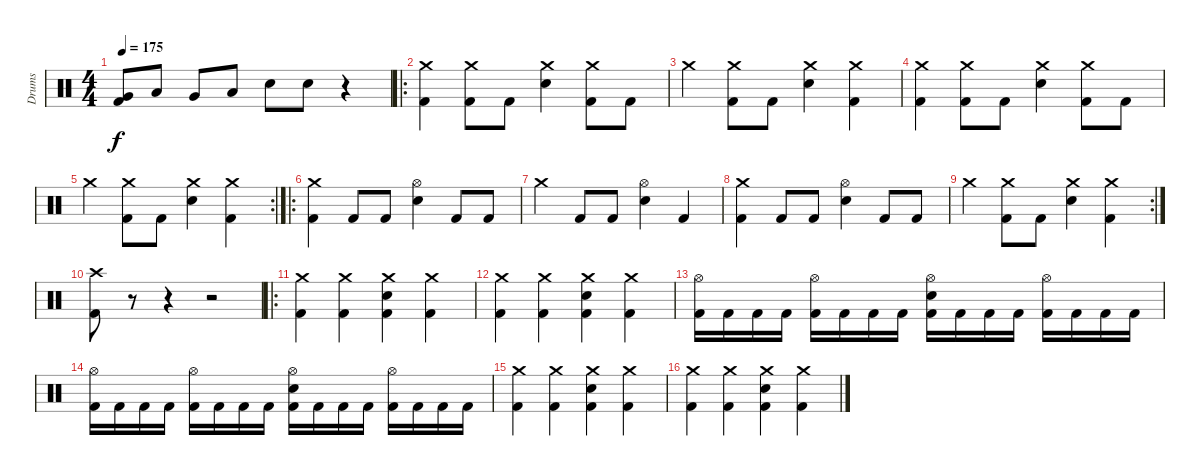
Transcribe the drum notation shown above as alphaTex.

\track ("Drums" "Drums") {instrument percussion}
\staff {score}
\articulation defaults
\ts (4 4)
\tempo 175
\clef neutral
\ks c
("Very Low Tom (hit)" "Kick (hit) 2").8{dy f} "Low Tom (hit)".8 "Very Low Tom (hit)".8 "Low Tom (hit)".8 "Snare (hit) 2".8 "Snare (hit) 2".8 r.4 |
\ro
("Crash medium (hit)" "Kick (hit) 2").4 ("Crash medium (hit)" "Kick (hit) 2").8 "Kick (hit) 2".8 ("Crash medium (hit)" "Snare (hit) 2").4 ("Crash medium (hit)" "Kick (hit) 2").8 "Kick (hit) 2".8 |
"Crash medium (hit)".4 ("Crash medium (hit)" "Kick (hit) 2").8 "Kick (hit) 2".8 ("Crash medium (hit)" "Snare (hit) 2").4 ("Crash medium (hit)" "Kick (hit) 2").4 |
("Crash medium (hit)" "Kick (hit) 2").4 ("Crash medium (hit)" "Kick (hit) 2").8 "Kick (hit) 2".8 ("Crash medium (hit)" "Snare (hit) 2").4 ("Crash medium (hit)" "Kick (hit) 2").8 "Kick (hit) 2".8 |
\rc 2 "Crash medium (hit)".4
("Crash medium (hit)" "Kick (hit) 2").8 "Kick (hit) 2".8 ("Crash medium (hit)" "Snare (hit) 2").4 ("Crash medium (hit)" "Kick (hit) 2").4 |
\ro
("Crash medium (hit)" "Kick (hit) 2").4 "Kick (hit) 2".8 "Kick (hit) 2".8 ("Hi-Hat (open)" "Snare (hit) 2").4 "Kick (hit) 2".8 "Kick (hit) 2".8 |
"Crash medium (hit)".4 "Kick (hit) 2".8 "Kick (hit) 2".8 ("Hi-Hat (open)" "Snare (hit) 2").4 "Kick (hit) 2".4 |
("Crash medium (hit)" "Kick (hit) 2").4 "Kick (hit) 2".8 "Kick (hit) 2".8 ("Hi-Hat (open)" "Snare (hit) 2").4 "Kick (hit) 2".8 "Kick (hit) 2".8 |
\rc 2 "Crash medium (hit)".4
("Crash medium (hit)" "Kick (hit) 2").8 "Kick (hit) 2".8 ("Crash medium (hit)" "Snare (hit) 2").4 ("Crash medium (hit)" "Kick (hit) 2").4 |
("Crash high (hit)" "Kick (hit) 2").8 r.8 r.4 r.2 |
\ro
("Crash medium (hit)" "Kick (hit) 2").4 ("Crash medium (hit)" "Kick (hit) 2").4 ("Crash medium (hit)" "Snare (hit) 2" "Kick (hit) 2").4 ("Crash medium (hit)" "Kick (hit) 2").4 |
("Crash medium (hit)" "Kick (hit) 2").4 ("Crash medium (hit)" "Kick (hit) 2").4 ("Crash medium (hit)" "Snare (hit) 2" "Kick (hit) 2").4 ("Crash medium (hit)" "Kick (hit) 2").4 |
("Hi-Hat (open)" "Kick (hit) 2").16 "Kick (hit) 2".16 "Kick (hit) 2".16 "Kick (hit) 2".16 ("Hi-Hat (open)" "Kick (hit) 2").16 "Kick (hit) 2".16 "Kick (hit) 2".16 "Kick (hit) 2".16 ("Hi-Hat (open)" "Snare (hit) 2" "Kick (hit) 2").16 "Kick (hit) 2".16 "Kick (hit) 2".16 "Kick (hit) 2".16 ("Hi-Hat (open)" "Kick (hit) 2").16 "Kick (hit) 2".16 "Kick (hit) 2".16 "Kick (hit) 2".16 |
("Hi-Hat (open)" "Kick (hit) 2").16 "Kick (hit) 2".16 "Kick (hit) 2".16 "Kick (hit) 2".16 ("Hi-Hat (open)" "Kick (hit) 2").16 "Kick (hit) 2".16 "Kick (hit) 2".16 "Kick (hit) 2".16 ("Hi-Hat (open)" "Snare (hit) 2" "Kick (hit) 2").16 "Kick (hit) 2".16 "Kick (hit) 2".16 "Kick (hit) 2".16 ("Hi-Hat (open)" "Kick (hit) 2").16 "Kick (hit) 2".16 "Kick (hit) 2".16 "Kick (hit) 2".16 |
("Crash medium (hit)" "Kick (hit) 2").4 ("Crash medium (hit)" "Kick (hit) 2").4 ("Crash medium (hit)" "Snare (hit) 2" "Kick (hit) 2").4 ("Crash medium (hit)" "Kick (hit) 2").4 |
("Crash medium (hit)" "Kick (hit) 2").4 ("Crash medium (hit)" "Kick (hit) 2").4 ("Crash medium (hit)" "Snare (hit) 2" "Kick (hit) 2").4 ("Crash medium (hit)" "Kick (hit) 2").4
